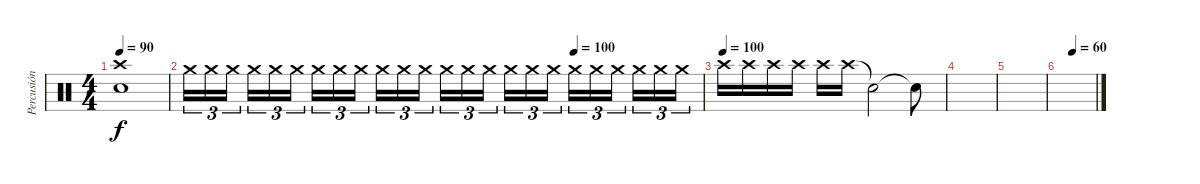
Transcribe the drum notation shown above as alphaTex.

\track ("Percusión" "Percusión") {instrument percussion}
\staff {score}
\articulation defaults
\ts (4 4)
\tempo 90
\clef neutral
\ks c
("Crash high (hit)" "Snare (hit) 2").1{dy f} |
\tempo (100 0.75)
"Crash medium (hit)".16{tu (3 2) volume 0} "Crash medium (hit)".16{tu (3 2) volume 15} "Crash medium (hit)".16{tu (3 2)} "Crash medium (hit)".16{tu (3 2)} "Crash medium (hit)".16{tu (3 2)} "Crash medium (hit)".16{tu (3 2)} "Crash medium (hit)".16{tu (3 2)} "Crash medium (hit)".16{tu (3 2)} "Crash medium (hit)".16{tu (3 2)} "Crash medium (hit)".16{tu (3 2)} "Crash medium (hit)".16{tu (3 2)} "Crash medium (hit)".16{tu (3 2)} "Crash medium (hit)".16{tu (3 2)} "Crash medium (hit)".16{tu (3 2)} "Crash medium (hit)".16{tu (3 2)} "Crash medium (hit)".16{tu (3 2)} "Crash medium (hit)".16{tu (3 2) volume 6} "Crash medium (hit)".16{tu (3 2)} "Crash medium (hit)".16{tu (3 2)} "Crash medium (hit)".16{tu (3 2)} "Crash medium (hit)".16{tu (3 2)} "Crash medium (hit)".16{tu (3 2)} "Crash medium (hit)".16{tu (3 2)} "Crash medium (hit)".16{tu (3 2)} |
\tempo (100)
"Crash high (hit)".16 "Crash high (hit)".16 "Crash high (hit)".16 "Crash high (hit)".16 "Crash high (hit)".16 "Crash high (hit)".16 "Snare (hit)"{t}.2 "Snare (hit)"{t}.8 |
|
|
\tempo (60 0.375)
